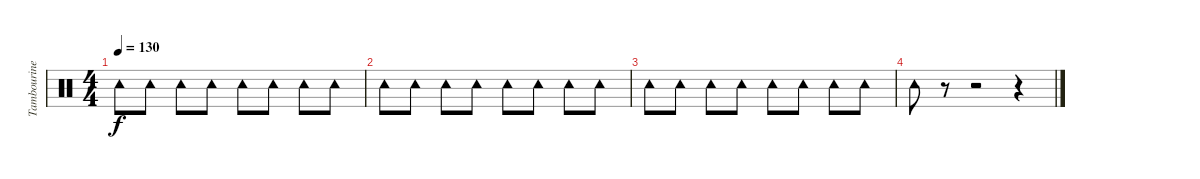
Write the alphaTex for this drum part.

\track ("Tambourine" "Tambourine") {instrument percussion}
\staff {score}
\articulation defaults
\ts (4 4)
\tempo 130
\clef neutral
\ks c "Tambourine (hit)".8{dy f} "Tambourine (hit)".8 "Tambourine (hit)".8 "Tambourine (hit)".8 "Tambourine (hit)".8 "Tambourine (hit)".8 "Tambourine (hit)".8 "Tambourine (hit)".8
|
"Tambourine (hit)".8 "Tambourine (hit)".8 "Tambourine (hit)".8 "Tambourine (hit)".8 "Tambourine (hit)".8 "Tambourine (hit)".8 "Tambourine (hit)".8 "Tambourine (hit)".8 |
"Tambourine (hit)".8 "Tambourine (hit)".8 "Tambourine (hit)".8 "Tambourine (hit)".8 "Tambourine (hit)".8 "Tambourine (hit)".8 "Tambourine (hit)".8 "Tambourine (hit)".8 |
"Tambourine (hit)".8 r.8 r.2 r.4
